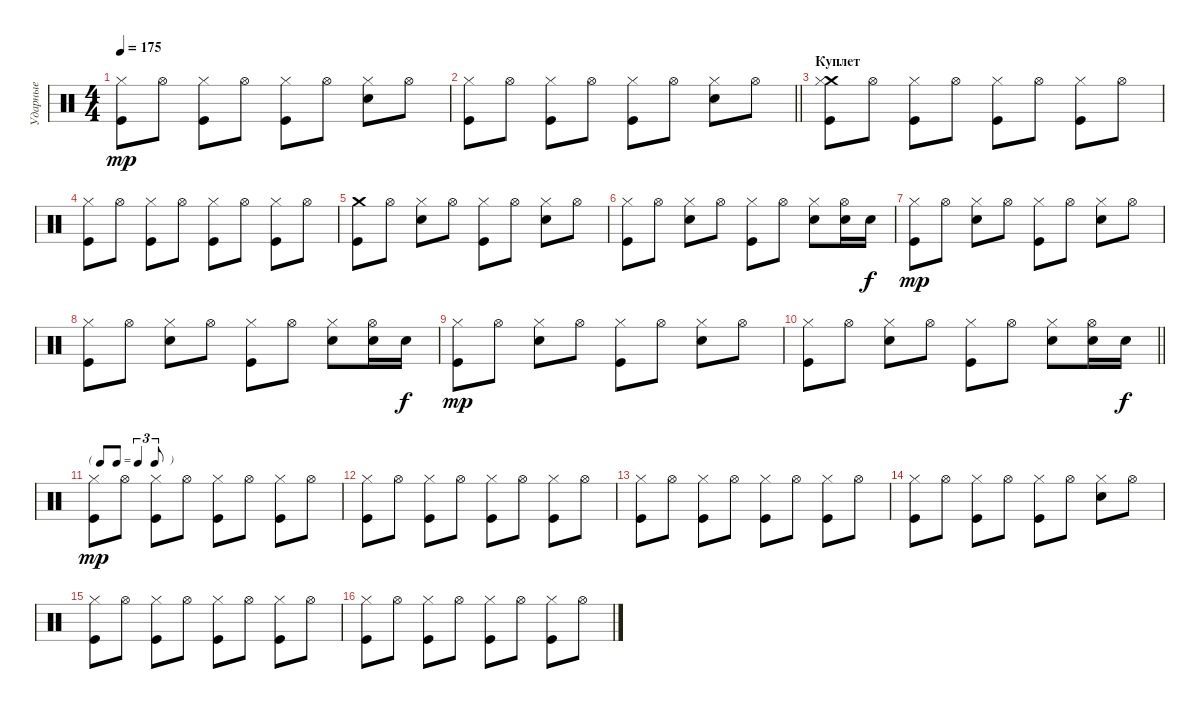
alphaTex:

\track ("Ударные" "Ударные") {instrument percussion}
\staff {score}
\articulation defaults
\ts (4 4)
\tempo 175
\clef neutral
\ks c
("Hi-Hat (closed)" "Kick (hit)").8{dy mp} "Hi-Hat (open)".8 ("Hi-Hat (closed)" "Kick (hit)").8 "Hi-Hat (open)".8 ("Hi-Hat (closed)" "Kick (hit)").8 "Hi-Hat (open)".8 ("Hi-Hat (closed)" "Electric Snare (hit)").8 "Hi-Hat (open)".8 |
\barLineRight lightlight
("Hi-Hat (closed)" "Kick (hit)").8 "Hi-Hat (open)".8 ("Hi-Hat (closed)" "Kick (hit)").8 "Hi-Hat (open)".8 ("Hi-Hat (closed)" "Kick (hit)").8 "Hi-Hat (open)".8 ("Hi-Hat (closed)" "Electric Snare (hit)").8 "Hi-Hat (open)".8 |
\section ("" "Куплет")
("Crash medium (hit)" "Hi-Hat (closed)" "Kick (hit)").8 "Hi-Hat (open)".8 ("Hi-Hat (closed)" "Kick (hit)").8 "Hi-Hat (open)".8 ("Hi-Hat (closed)" "Kick (hit)").8 "Hi-Hat (open)".8 ("Hi-Hat (closed)" "Kick (hit)").8 "Hi-Hat (open)".8 |
("Hi-Hat (closed)" "Kick (hit)").8 "Hi-Hat (open)".8 ("Hi-Hat (closed)" "Kick (hit)").8 "Hi-Hat (open)".8 ("Hi-Hat (closed)" "Kick (hit)").8 "Hi-Hat (open)".8 ("Hi-Hat (closed)" "Kick (hit)").8 "Hi-Hat (open)".8 |
("Crash medium (hit)" "Kick (hit)").8 "Hi-Hat (open)".8 ("Hi-Hat (closed)" "Electric Snare (hit)").8 "Hi-Hat (open)".8 ("Hi-Hat (closed)" "Kick (hit)").8 "Hi-Hat (open)".8 ("Hi-Hat (closed)" "Electric Snare (hit)").8 "Hi-Hat (open)".8 |
("Hi-Hat (closed)" "Kick (hit)").8 "Hi-Hat (open)".8 ("Hi-Hat (closed)" "Electric Snare (hit)").8 "Hi-Hat (open)".8 ("Hi-Hat (closed)" "Kick (hit)").8 "Hi-Hat (open)".8 ("Hi-Hat (closed)" "Electric Snare (hit)").8 ("Hi-Hat (open)" "Electric Snare (hit)").16 "Electric Snare (hit)".16{dy f} |
("Hi-Hat (closed)" "Kick (hit)").8{dy mp} "Hi-Hat (open)".8 ("Hi-Hat (closed)" "Electric Snare (hit)").8 "Hi-Hat (open)".8 ("Hi-Hat (closed)" "Kick (hit)").8 "Hi-Hat (open)".8 ("Hi-Hat (closed)" "Electric Snare (hit)").8 "Hi-Hat (open)".8 |
("Hi-Hat (closed)" "Kick (hit)").8 "Hi-Hat (open)".8 ("Hi-Hat (closed)" "Electric Snare (hit)").8 "Hi-Hat (open)".8 ("Hi-Hat (closed)" "Kick (hit)").8 "Hi-Hat (open)".8 ("Hi-Hat (closed)" "Electric Snare (hit)").8 ("Hi-Hat (open)" "Electric Snare (hit)").16 "Electric Snare (hit)".16{dy f} |
("Hi-Hat (closed)" "Kick (hit)").8{dy mp} "Hi-Hat (open)".8 ("Hi-Hat (closed)" "Electric Snare (hit)").8 "Hi-Hat (open)".8 ("Hi-Hat (closed)" "Kick (hit)").8 "Hi-Hat (open)".8 ("Hi-Hat (closed)" "Electric Snare (hit)").8 "Hi-Hat (open)".8 |
\barLineRight lightlight
("Hi-Hat (closed)" "Kick (hit)").8 "Hi-Hat (open)".8 ("Hi-Hat (closed)" "Electric Snare (hit)").8 "Hi-Hat (open)".8 ("Hi-Hat (closed)" "Kick (hit)").8 "Hi-Hat (open)".8 ("Hi-Hat (closed)" "Electric Snare (hit)").8 ("Hi-Hat (open)" "Electric Snare (hit)").16 "Electric Snare (hit)".16{dy f} |
\tf triplet8th
\section ("" " ")
("Hi-Hat (closed)" "Kick (hit)").8{dy mp} "Hi-Hat (open)".8 ("Hi-Hat (closed)" "Kick (hit)").8 "Hi-Hat (open)".8 ("Hi-Hat (closed)" "Kick (hit)").8 "Hi-Hat (open)".8 ("Hi-Hat (closed)" "Kick (hit)").8 "Hi-Hat (open)".8 |
("Hi-Hat (closed)" "Kick (hit)").8 "Hi-Hat (open)".8 ("Hi-Hat (closed)" "Kick (hit)").8 "Hi-Hat (open)".8 ("Hi-Hat (closed)" "Kick (hit)").8 "Hi-Hat (open)".8 ("Hi-Hat (closed)" "Kick (hit)").8 "Hi-Hat (open)".8 |
("Hi-Hat (closed)" "Kick (hit)").8 "Hi-Hat (open)".8 ("Hi-Hat (closed)" "Kick (hit)").8 "Hi-Hat (open)".8 ("Hi-Hat (closed)" "Kick (hit)").8 "Hi-Hat (open)".8 ("Hi-Hat (closed)" "Kick (hit)").8 "Hi-Hat (open)".8 |
("Hi-Hat (closed)" "Kick (hit)").8 "Hi-Hat (open)".8 ("Hi-Hat (closed)" "Kick (hit)").8 "Hi-Hat (open)".8 ("Hi-Hat (closed)" "Kick (hit)").8 "Hi-Hat (open)".8 ("Hi-Hat (closed)" "Electric Snare (hit)").8 "Hi-Hat (open)".8 |
("Hi-Hat (closed)" "Kick (hit)").8 "Hi-Hat (open)".8 ("Hi-Hat (closed)" "Kick (hit)").8 "Hi-Hat (open)".8 ("Hi-Hat (closed)" "Kick (hit)").8 "Hi-Hat (open)".8 ("Hi-Hat (closed)" "Kick (hit)").8 "Hi-Hat (open)".8 |
("Hi-Hat (closed)" "Kick (hit)").8 "Hi-Hat (open)".8 ("Hi-Hat (closed)" "Kick (hit)").8 "Hi-Hat (open)".8 ("Hi-Hat (closed)" "Kick (hit)").8 "Hi-Hat (open)".8 ("Hi-Hat (closed)" "Kick (hit)").8 "Hi-Hat (open)".8
